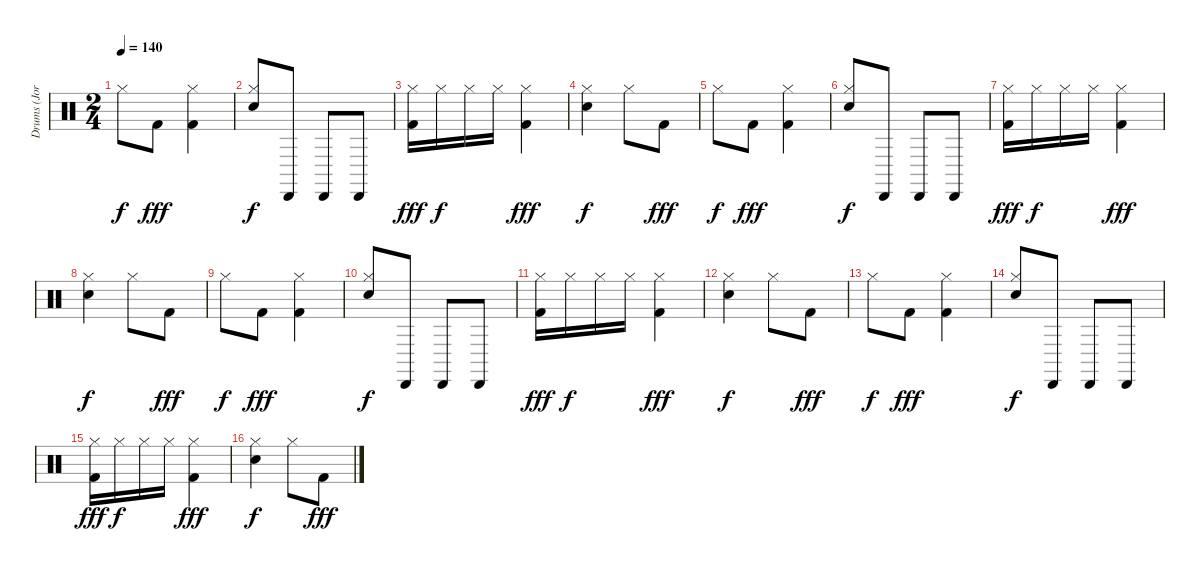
\track ("Drums (Jordan Hastings)" "Drums (Jor") {instrument percussion}
\staff {score}
\articulation defaults
\ts (2 4)
\tempo 140
\clef neutral
\ks c "Hi-Hat (closed)".8{dy f} "Kick (hit) 2".8{dy fff}
("Hi-Hat (closed)" "Kick (hit) 2").4 |
("Hi-Hat (closed)" "Electric Snare (hit)").8{dy f} "Cabasa (hit)".8 "Cabasa (hit)".8 "Cabasa (hit)".8 |
("Hi-Hat (closed)" "Kick (hit) 2").16{dy fff} "Hi-Hat (closed)".16{dy f} "Hi-Hat (closed)".16 "Hi-Hat (closed)".16 ("Hi-Hat (closed)" "Kick (hit) 2").4{dy fff} |
("Hi-Hat (closed)" "Electric Snare (hit)").4{dy f} "Hi-Hat (closed)".8 "Kick (hit) 2".8{dy fff} |
"Hi-Hat (closed)".8{dy f} "Kick (hit) 2".8{dy fff} ("Hi-Hat (closed)" "Kick (hit) 2").4 |
("Hi-Hat (closed)" "Electric Snare (hit)").8{dy f} "Cabasa (hit)".8 "Cabasa (hit)".8 "Cabasa (hit)".8 |
("Hi-Hat (closed)" "Kick (hit) 2").16{dy fff} "Hi-Hat (closed)".16{dy f} "Hi-Hat (closed)".16 "Hi-Hat (closed)".16 ("Hi-Hat (closed)" "Kick (hit) 2").4{dy fff} |
("Hi-Hat (closed)" "Electric Snare (hit)").4{dy f} "Hi-Hat (closed)".8 "Kick (hit) 2".8{dy fff} |
"Hi-Hat (closed)".8{dy f} "Kick (hit) 2".8{dy fff} ("Hi-Hat (closed)" "Kick (hit) 2").4 |
("Hi-Hat (closed)" "Electric Snare (hit)").8{dy f} "Cabasa (hit)".8 "Cabasa (hit)".8 "Cabasa (hit)".8 |
("Hi-Hat (closed)" "Kick (hit) 2").16{dy fff} "Hi-Hat (closed)".16{dy f} "Hi-Hat (closed)".16 "Hi-Hat (closed)".16 ("Hi-Hat (closed)" "Kick (hit) 2").4{dy fff} |
("Hi-Hat (closed)" "Electric Snare (hit)").4{dy f} "Hi-Hat (closed)".8 "Kick (hit) 2".8{dy fff} |
"Hi-Hat (closed)".8{dy f} "Kick (hit) 2".8{dy fff} ("Hi-Hat (closed)" "Kick (hit) 2").4 |
("Hi-Hat (closed)" "Electric Snare (hit)").8{dy f} "Cabasa (hit)".8 "Cabasa (hit)".8 "Cabasa (hit)".8 |
("Hi-Hat (closed)" "Kick (hit) 2").16{dy fff} "Hi-Hat (closed)".16{dy f} "Hi-Hat (closed)".16 "Hi-Hat (closed)".16 ("Hi-Hat (closed)" "Kick (hit) 2").4{dy fff} |
("Hi-Hat (closed)" "Electric Snare (hit)").4{dy f} "Hi-Hat (closed)".8 "Kick (hit) 2".8{dy fff}
